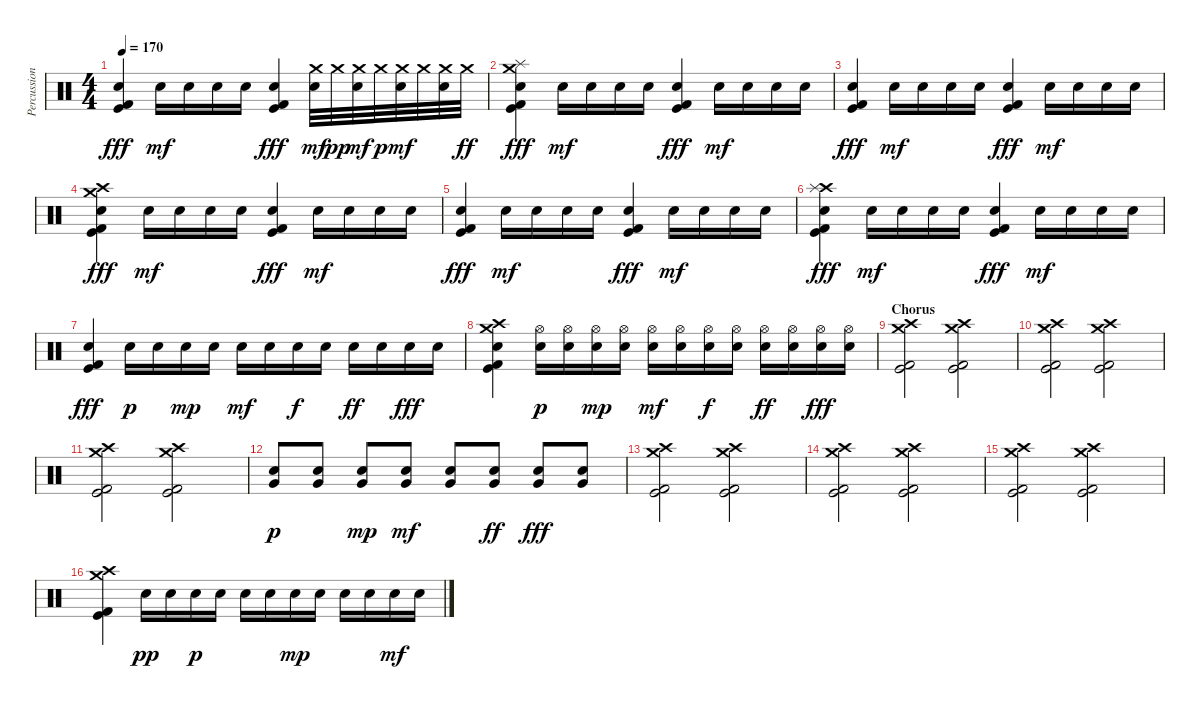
\track ("Percussions" "Percussion") {instrument percussion}
\staff {score}
\articulation defaults
\ts (4 4)
\tempo 170
\clef neutral
\ks c
("Electric Snare (hit)" "Kick (hit)" "Kick (hit) 2").4{dy fff} "Electric Snare (hit)".16{dy mf} "Electric Snare (hit)".16 "Electric Snare (hit)".16 "Electric Snare (hit)".16 ("Electric Snare (hit)" "Kick (hit)" "Kick (hit) 2").4{dy fff} ("Crash medium (hit)" "Electric Snare (hit)").32{dy mf} "Crash medium (hit)".32{dy pp} ("Crash medium (hit)" "Electric Snare (hit)").32{dy mf} "Crash medium (hit)".32{dy p} ("Crash medium (hit)" "Electric Snare (hit)").32{dy mf} "Crash medium (hit)".32 ("Crash medium (hit)" "Electric Snare (hit)").32 "Crash medium (hit)".32{dy ff} |
("Crash medium (hit)" "Splash (hit)" "Electric Snare (hit)" "Kick (hit)" "Kick (hit) 2").4{dy fff} "Electric Snare (hit)".16{dy mf} "Electric Snare (hit)".16 "Electric Snare (hit)".16 "Electric Snare (hit)".16 ("Electric Snare (hit)" "Kick (hit)" "Kick (hit) 2").4{dy fff} "Electric Snare (hit)".16{dy mf} "Electric Snare (hit)".16 "Electric Snare (hit)".16 "Electric Snare (hit)".16 |
("Electric Snare (hit)" "Kick (hit)" "Kick (hit) 2").4{dy fff} "Electric Snare (hit)".16{dy mf} "Electric Snare (hit)".16 "Electric Snare (hit)".16 "Electric Snare (hit)".16 ("Electric Snare (hit)" "Kick (hit)" "Kick (hit) 2").4{dy fff} "Electric Snare (hit)".16{dy mf} "Electric Snare (hit)".16 "Electric Snare (hit)".16 "Electric Snare (hit)".16 |
("Crash medium (hit)" "Crash high (hit)" "Electric Snare (hit)" "Kick (hit)" "Kick (hit) 2").4{dy fff} "Electric Snare (hit)".16{dy mf} "Electric Snare (hit)".16 "Electric Snare (hit)".16 "Electric Snare (hit)".16 ("Electric Snare (hit)" "Kick (hit)" "Kick (hit) 2").4{dy fff} "Electric Snare (hit)".16{dy mf} "Electric Snare (hit)".16 "Electric Snare (hit)".16 "Electric Snare (hit)".16 |
("Electric Snare (hit)" "Kick (hit)" "Kick (hit) 2").4{dy fff} "Electric Snare (hit)".16{dy mf} "Electric Snare (hit)".16 "Electric Snare (hit)".16 "Electric Snare (hit)".16 ("Electric Snare (hit)" "Kick (hit)" "Kick (hit) 2").4{dy fff} "Electric Snare (hit)".16{dy mf} "Electric Snare (hit)".16 "Electric Snare (hit)".16 "Electric Snare (hit)".16 |
("Crash high (hit)" "Splash (hit)" "Electric Snare (hit)" "Kick (hit)" "Kick (hit) 2").4{dy fff} "Electric Snare (hit)".16{dy mf} "Electric Snare (hit)".16 "Electric Snare (hit)".16 "Electric Snare (hit)".16 ("Electric Snare (hit)" "Kick (hit)" "Kick (hit) 2").4{dy fff} "Electric Snare (hit)".16{dy mf} "Electric Snare (hit)".16 "Electric Snare (hit)".16 "Electric Snare (hit)".16 |
("Electric Snare (hit)" "Kick (hit)" "Kick (hit) 2").4{dy fff} "Electric Snare (hit)".16{dy p} "Electric Snare (hit)".16 "Electric Snare (hit)".16{dy mp} "Electric Snare (hit)".16 "Electric Snare (hit)".16{dy mf} "Electric Snare (hit)".16 "Electric Snare (hit)".16{dy f} "Electric Snare (hit)".16 "Electric Snare (hit)".16{dy ff} "Electric Snare (hit)".16 "Electric Snare (hit)".16{dy fff} "Electric Snare (hit)".16 |
("Crash high (hit)" "Crash medium (hit)" "Electric Snare (hit)" "Kick (hit)" "Kick (hit) 2").4 ("Hi-Hat (open)" "Electric Snare (hit)").16{dy p} ("Hi-Hat (open)" "Electric Snare (hit)").16 ("Hi-Hat (open)" "Electric Snare (hit)").16{dy mp} ("Hi-Hat (open)" "Electric Snare (hit)").16 ("Hi-Hat (open)" "Electric Snare (hit)").16{dy mf} ("Hi-Hat (open)" "Electric Snare (hit)").16 ("Hi-Hat (open)" "Electric Snare (hit)").16{dy f} ("Hi-Hat (open)" "Electric Snare (hit)").16 ("Hi-Hat (open)" "Electric Snare (hit)").16{dy ff} ("Hi-Hat (open)" "Electric Snare (hit)").16 ("Hi-Hat (open)" "Electric Snare (hit)").16{dy fff} ("Hi-Hat (open)" "Electric Snare (hit)").16 |
\section ("" "Chorus")
("Crash high (hit)" "Crash medium (hit)" "Kick (hit)" "Kick (hit) 2").2 ("Crash high (hit)" "Crash medium (hit)" "Kick (hit)" "Kick (hit) 2").2 |
("Crash high (hit)" "Crash medium (hit)" "Kick (hit)" "Kick (hit) 2").2 ("Crash high (hit)" "Crash medium (hit)" "Kick (hit)" "Kick (hit) 2").2 |
("Crash high (hit)" "Crash medium (hit)" "Kick (hit)" "Kick (hit) 2").2 ("Crash high (hit)" "Crash medium (hit)" "Kick (hit)" "Kick (hit) 2").2 |
("Very Low Tom (hit)" "Electric Snare (hit)").8{dy p} ("Very Low Tom (hit)" "Electric Snare (hit)").8 ("Very Low Tom (hit)" "Electric Snare (hit)").8{dy mp} ("Very Low Tom (hit)" "Electric Snare (hit)").8{dy mf} ("Very Low Tom (hit)" "Electric Snare (hit)").8 ("Very Low Tom (hit)" "Electric Snare (hit)").8{dy ff} ("Very Low Tom (hit)" "Electric Snare (hit)").8{dy fff} ("Very Low Tom (hit)" "Electric Snare (hit)").8 |
("Crash high (hit)" "Crash medium (hit)" "Kick (hit)" "Kick (hit) 2").2 ("Crash high (hit)" "Crash medium (hit)" "Kick (hit)" "Kick (hit) 2").2 |
("Crash high (hit)" "Crash medium (hit)" "Kick (hit)" "Kick (hit) 2").2 ("Crash high (hit)" "Crash medium (hit)" "Kick (hit)" "Kick (hit) 2").2 |
("Crash high (hit)" "Crash medium (hit)" "Kick (hit)" "Kick (hit) 2").2 ("Crash high (hit)" "Crash medium (hit)" "Kick (hit)" "Kick (hit) 2").2 |
("Crash high (hit)" "Crash medium (hit)" "Kick (hit)" "Kick (hit) 2").4 "Snare (hit) 2".16{dy pp} "Snare (hit) 2".16 "Snare (hit) 2".16{dy p} "Snare (hit) 2".16 "Snare (hit) 2".16 "Snare (hit) 2".16 "Snare (hit) 2".16{dy mp} "Snare (hit) 2".16 "Snare (hit) 2".16 "Snare (hit) 2".16 "Snare (hit) 2".16{dy mf} "Snare (hit) 2".16
